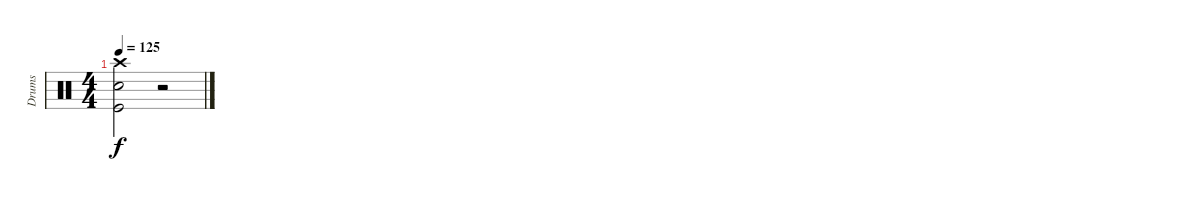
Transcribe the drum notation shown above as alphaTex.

\track ("Drums" "Drums") {instrument percussion}
\staff {score}
\articulation defaults
\ts (4 4)
\tempo 125
\clef neutral
\ks c
("Crash high (hit)" "Electric Snare (hit)" "Kick (hit)").2{dy f} r.2
